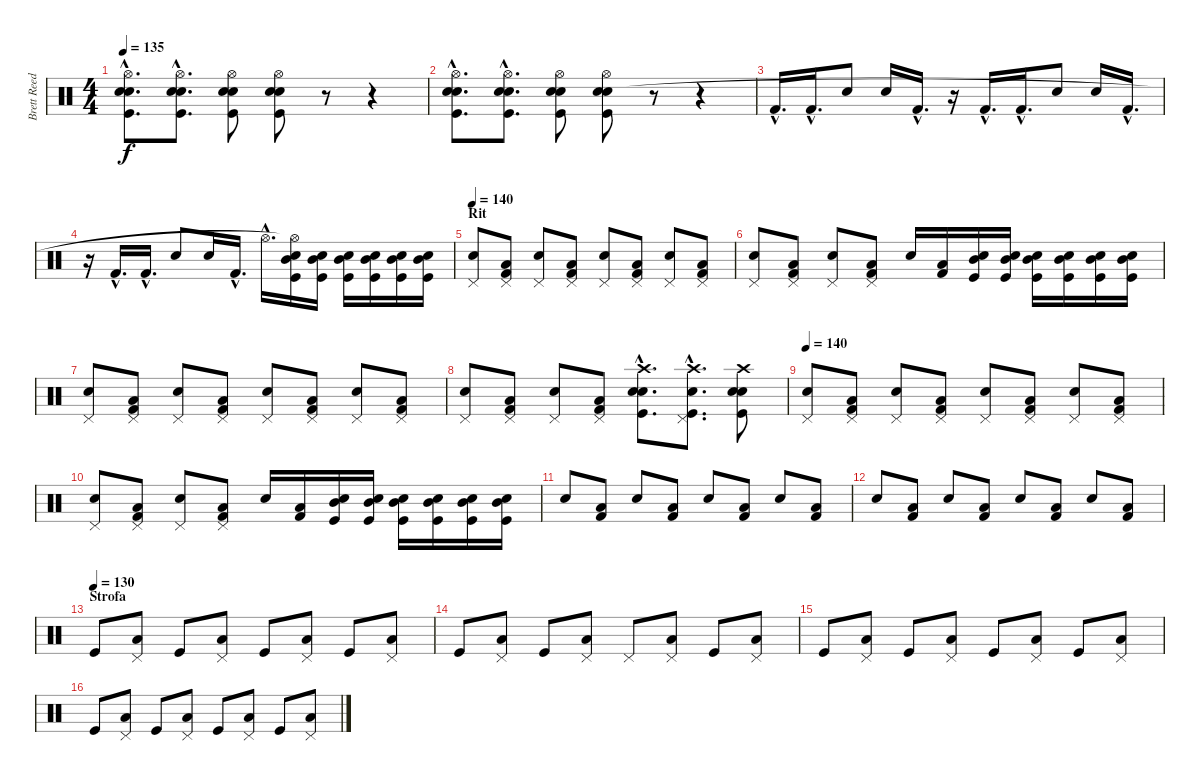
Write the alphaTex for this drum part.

\track ("Brett Reed (Drums)" "Brett Reed") {instrument percussion}
\staff {score}
\articulation defaults
\ts (4 4)
\tempo 135
\clef neutral
\ks c
("Snare (hit) 2"{hac} "Kick (hit)"{hac} "Hi-Hat (open)"{hac} "Electric Snare (hit)"{hac}).8{d dy f} ("Snare (hit) 2"{hac} "Kick (hit)"{hac} "Hi-Hat (open)"{hac} "Electric Snare (hit)"{hac}).8{d} ("Snare (hit) 2" "Kick (hit)" "Hi-Hat (open)" "Electric Snare (hit)").8 ("Snare (hit) 2" "Kick (hit)" "Hi-Hat (open)" "Electric Snare (hit)").8 r.8 r.4 |
("Snare (hit) 2"{hac} "Kick (hit)"{hac} "Hi-Hat (open)"{hac} "Electric Snare (hit)"{hac}).8{d} ("Snare (hit) 2"{hac} "Kick (hit)"{hac} "Hi-Hat (open)"{hac} "Electric Snare (hit)"{hac}).8{d} ("Snare (hit) 2" "Kick (hit)" "Hi-Hat (open)" "Electric Snare (hit)").8 ("Snare (hit) 2" "Kick (hit)" "Hi-Hat (open)" "Electric Snare (hit)").8 r.8 r.4 |
"Kick (hit) 2"{hac}.16{d} "Kick (hit) 2"{hac}.16{d} "Snare (hit) 2".8 "Snare (hit) 2".16 "Kick (hit) 2"{hac}.16{d} r.16 "Kick (hit) 2"{hac}.16{d} "Kick (hit) 2"{hac}.16{d} "Snare (hit) 2".8 "Snare (hit) 2".16 "Kick (hit) 2"{hac}.16{d} |
r.16 "Kick (hit) 2"{hac}.16{d} "Kick (hit) 2"{hac}.16{d} "Snare (hit) 2".8 "Snare (hit) 2".16 "Kick (hit) 2"{hac}.16{d} "Hi-Hat (open)"{hac}.16{d} ("Mid Tom (hit)" "Snare (hit) 2" "Kick (hit)" "Hi-Hat (open)"{t}).16 ("Mid Tom (hit)" "Snare (hit) 2" "Kick (hit)").16 ("Mid Tom (hit)" "Snare (hit) 2" "Kick (hit)").16 ("Mid Tom (hit)" "Snare (hit) 2" "Kick (hit)").16 ("Mid Tom (hit)" "Snare (hit) 2" "Kick (hit)").16 ("Mid Tom (hit)" "Snare (hit) 2" "Kick (hit)").16 |
\section ("" "Rit")
\tempo 140
("Snare (hit) 2" "Pedal Hi-Hat (hit)").8 ("Kick (hit) 2" "Low Floor Tom (hit)" "Pedal Hi-Hat (hit)").8 ("Snare (hit) 2" "Pedal Hi-Hat (hit)").8 ("Kick (hit) 2" "Low Floor Tom (hit)" "Pedal Hi-Hat (hit)").8 ("Snare (hit) 2" "Pedal Hi-Hat (hit)").8 ("Kick (hit) 2" "Low Floor Tom (hit)" "Pedal Hi-Hat (hit)").8 ("Snare (hit) 2" "Pedal Hi-Hat (hit)").8 ("Kick (hit) 2" "Low Floor Tom (hit)" "Pedal Hi-Hat (hit)").8 |
("Snare (hit) 2" "Pedal Hi-Hat (hit)").8 ("Kick (hit) 2" "Low Floor Tom (hit)" "Pedal Hi-Hat (hit)").8 ("Snare (hit) 2" "Pedal Hi-Hat (hit)").8 ("Kick (hit) 2" "Low Floor Tom (hit)" "Pedal Hi-Hat (hit)").8 "Snare (hit) 2".16 ("Kick (hit) 2" "Low Floor Tom (hit)").16 ("Mid Tom (hit)" "Snare (hit) 2" "Kick (hit)").16 ("Mid Tom (hit)" "Snare (hit) 2" "Kick (hit)").16 ("Mid Tom (hit)" "Snare (hit) 2" "Kick (hit)").16 ("Mid Tom (hit)" "Snare (hit) 2" "Kick (hit)").16 ("Mid Tom (hit)" "Snare (hit) 2" "Kick (hit)").16 ("Mid Tom (hit)" "Snare (hit) 2" "Kick (hit)").16 |
("Snare (hit) 2" "Pedal Hi-Hat (hit)").8 ("Kick (hit) 2" "Low Floor Tom (hit)" "Pedal Hi-Hat (hit)").8 ("Snare (hit) 2" "Pedal Hi-Hat (hit)").8 ("Kick (hit) 2" "Low Floor Tom (hit)" "Pedal Hi-Hat (hit)").8 ("Snare (hit) 2" "Pedal Hi-Hat (hit)").8 ("Kick (hit) 2" "Low Floor Tom (hit)" "Pedal Hi-Hat (hit)").8 ("Snare (hit) 2" "Pedal Hi-Hat (hit)").8 ("Kick (hit) 2" "Low Floor Tom (hit)" "Pedal Hi-Hat (hit)").8 |
("Snare (hit) 2" "Pedal Hi-Hat (hit)").8 ("Kick (hit) 2" "Low Floor Tom (hit)" "Pedal Hi-Hat (hit)").8 ("Snare (hit) 2" "Pedal Hi-Hat (hit)").8 ("Kick (hit) 2" "Low Floor Tom (hit)" "Pedal Hi-Hat (hit)").8 ("Snare (hit) 2"{hac} "Kick (hit)"{hac} "Crash high (hit)"{hac} "Electric Snare (hit)"{hac}).8{d} ("Snare (hit) 2"{hac} "Kick (hit)"{hac} "Crash high (hit)"{hac} "Pedal Hi-Hat (hit)"{hac}).8{d} ("Snare (hit) 2" "Kick (hit)" "Crash high (hit)" "Electric Snare (hit)").8 |
\tempo 140
("Snare (hit) 2" "Pedal Hi-Hat (hit)").8 ("Kick (hit) 2" "Low Floor Tom (hit)" "Pedal Hi-Hat (hit)").8 ("Snare (hit) 2" "Pedal Hi-Hat (hit)").8 ("Kick (hit) 2" "Low Floor Tom (hit)" "Pedal Hi-Hat (hit)").8 ("Snare (hit) 2" "Pedal Hi-Hat (hit)").8 ("Kick (hit) 2" "Low Floor Tom (hit)" "Pedal Hi-Hat (hit)").8 ("Snare (hit) 2" "Pedal Hi-Hat (hit)").8 ("Kick (hit) 2" "Low Floor Tom (hit)" "Pedal Hi-Hat (hit)").8 |
("Snare (hit) 2" "Pedal Hi-Hat (hit)").8 ("Kick (hit) 2" "Low Floor Tom (hit)" "Pedal Hi-Hat (hit)").8 ("Snare (hit) 2" "Pedal Hi-Hat (hit)").8 ("Kick (hit) 2" "Low Floor Tom (hit)" "Pedal Hi-Hat (hit)").8 "Snare (hit) 2".16 ("Kick (hit) 2" "Low Floor Tom (hit)").16 ("Mid Tom (hit)" "Snare (hit) 2" "Kick (hit)").16 ("Mid Tom (hit)" "Snare (hit) 2" "Kick (hit)").16 ("Mid Tom (hit)" "Snare (hit) 2" "Kick (hit)").16 ("Mid Tom (hit)" "Snare (hit) 2" "Kick (hit)").16 ("Mid Tom (hit)" "Snare (hit) 2" "Kick (hit)").16 ("Mid Tom (hit)" "Snare (hit) 2" "Kick (hit)").16 |
"Snare (hit) 2".8 ("Kick (hit) 2" "Low Floor Tom (hit)").8 "Snare (hit) 2".8 ("Kick (hit) 2" "Low Floor Tom (hit)").8 "Snare (hit) 2".8 ("Kick (hit) 2" "Low Floor Tom (hit)").8 "Snare (hit) 2".8 ("Kick (hit) 2" "Low Floor Tom (hit)").8 |
"Snare (hit) 2".8 ("Kick (hit) 2" "Low Floor Tom (hit)").8 "Snare (hit) 2".8 ("Kick (hit) 2" "Low Floor Tom (hit)").8 "Snare (hit) 2".8 ("Kick (hit) 2" "Low Floor Tom (hit)").8 "Snare (hit) 2".8 ("Kick (hit) 2" "Low Floor Tom (hit)").8 |
\section ("" "Strofa")
\tempo (130)
"Kick (hit)".8 ("Low Floor Tom (hit)" "Pedal Hi-Hat (hit)").8 "Kick (hit)".8 ("Low Floor Tom (hit)" "Pedal Hi-Hat (hit)").8 "Kick (hit)".8 ("Low Floor Tom (hit)" "Pedal Hi-Hat (hit)").8 "Kick (hit)".8 ("Low Floor Tom (hit)" "Pedal Hi-Hat (hit)").8 |
"Kick (hit)".8 ("Low Floor Tom (hit)" "Pedal Hi-Hat (hit)").8 "Kick (hit)".8 ("Low Floor Tom (hit)" "Pedal Hi-Hat (hit)").8 "Pedal Hi-Hat (hit)".8 ("Low Floor Tom (hit)" "Pedal Hi-Hat (hit)").8 "Kick (hit)".8 ("Low Floor Tom (hit)" "Pedal Hi-Hat (hit)").8 |
"Kick (hit)".8 ("Low Floor Tom (hit)" "Pedal Hi-Hat (hit)").8 "Kick (hit)".8 ("Low Floor Tom (hit)" "Pedal Hi-Hat (hit)").8 "Kick (hit)".8 ("Low Floor Tom (hit)" "Pedal Hi-Hat (hit)").8 "Kick (hit)".8 ("Low Floor Tom (hit)" "Pedal Hi-Hat (hit)").8 |
"Kick (hit)".8 ("Low Floor Tom (hit)" "Pedal Hi-Hat (hit)").8 "Kick (hit)".8 ("Low Floor Tom (hit)" "Pedal Hi-Hat (hit)").8 "Kick (hit)".8 ("Low Floor Tom (hit)" "Pedal Hi-Hat (hit)").8 "Kick (hit)".8 ("Low Floor Tom (hit)" "Pedal Hi-Hat (hit)").8
